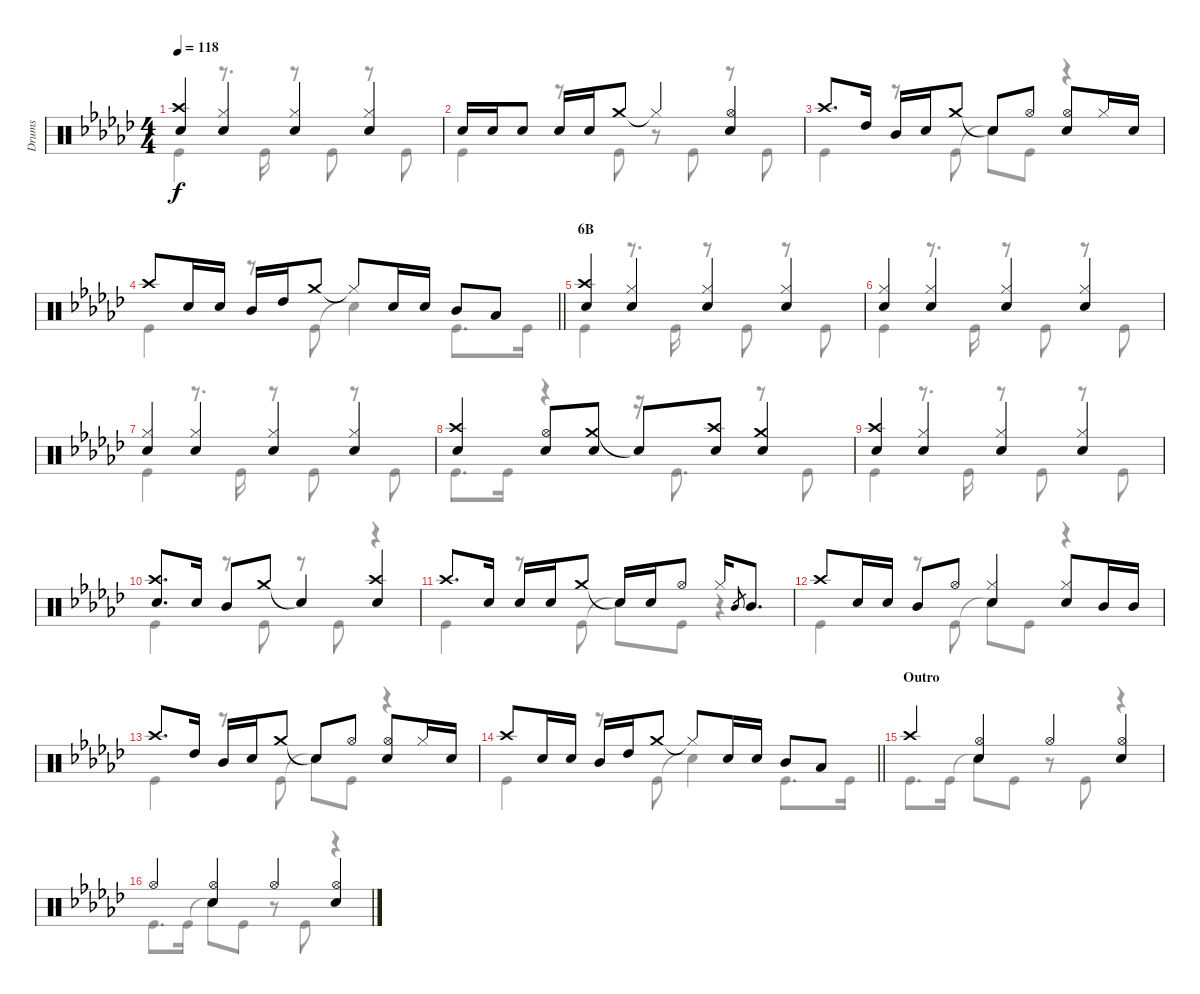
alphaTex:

\track ("Drums" "Drums") {instrument percussion}
\staff {score}
\articulation defaults
\voice
\ts (4 4)
\tempo 118
\clef neutral
\ks gb
("Crash high (hit)" "Snare (hit) 2").4{dy f} ("Hi-Hat (closed)" "Snare (hit) 2").4 ("Hi-Hat (closed)" "Snare (hit) 2").4 ("Hi-Hat (closed)" "Snare (hit) 2").4 |
"Snare (hit) 2".16 "Snare (hit) 2".16 "Snare (hit) 2".8 "Snare (hit) 2".16 "Snare (hit) 2".16 "Crash medium (hit)".8 "Hi-Hat (closed)"{t}.4 ("Hi-Hat (open)" "Snare (hit) 2").4 |
"Crash high (hit)".8{d} "High Tom (hit)".16 "Mid Tom (hit)".16 "Snare (hit) 2".16 "Crash medium (hit)".8 "Snare (hit)"{t}.8 "Hi-Hat (open)".8 ("Hi-Hat (open)" "Snare (hit) 2").8 "Hi-Hat (closed)".16 "Snare (hit) 2".16 |
\barLineRight lightlight "Crash high (hit)".8 "Snare (hit) 2".16 "Snare (hit) 2".16 "Mid Tom (hit)".16 "High Tom (hit)".16 "Crash medium (hit)".8 "Hi-Hat (closed)"{t}.8 "Snare (hit) 2".16 "Snare (hit) 2".16 "Mid Tom (hit)".8 "Low Tom (hit)".8
|
\section ("" "6B")
("Crash high (hit)" "Snare (hit) 2").4 ("Hi-Hat (closed)" "Snare (hit) 2").4 ("Hi-Hat (closed)" "Snare (hit) 2").4 ("Hi-Hat (closed)" "Snare (hit) 2").4 |
("Hi-Hat (closed)" "Snare (hit) 2").4 ("Hi-Hat (closed)" "Snare (hit) 2").4 ("Hi-Hat (closed)" "Snare (hit) 2").4 ("Hi-Hat (closed)" "Snare (hit) 2").4 |
("Hi-Hat (closed)" "Snare (hit) 2").4 ("Hi-Hat (closed)" "Snare (hit) 2").4 ("Hi-Hat (closed)" "Snare (hit) 2").4 ("Hi-Hat (closed)" "Snare (hit) 2").4 |
("Crash high (hit)" "Snare (hit) 2").4 ("Hi-Hat (open)" "Snare (hit) 2").8 ("Crash medium (hit)" "Snare (hit) 2").8 "Snare (hit)"{t}.8 ("Crash high (hit)" "Snare (hit) 2").8 ("Crash medium (hit)" "Snare (hit) 2").4 |
("Crash high (hit)" "Snare (hit) 2").4 ("Hi-Hat (closed)" "Snare (hit) 2").4 ("Hi-Hat (closed)" "Snare (hit) 2").4 ("Hi-Hat (closed)" "Snare (hit) 2").4 |
("Crash high (hit)" "Snare (hit) 2").8{d} "Snare (hit) 2".16 "Mid Tom (hit)".8 "Crash medium (hit)".8 "Snare (hit)"{t}.4 ("Crash high (hit)" "Snare (hit) 2").4 |
"Crash high (hit)".8{d} "Snare (hit) 2".16 "Snare (hit) 2".16 "Snare (hit) 2".16 "Crash medium (hit)".8 "Snare (hit)"{t}.16 "Snare (hit) 2".16 "Hi-Hat (open)".8 "Hi-Hat (closed)".16 "Mid Tom (hit)".8{gr} "Mid Tom (hit)".8{d} |
"Crash high (hit)".8 "Snare (hit) 2".16 "Snare (hit) 2".16 "Mid Tom (hit)".8 "Hi-Hat (open)".8 ("Hi-Hat (closed)" "Snare (hit) 2").4 ("Hi-Hat (closed)" "Snare (hit) 2").8 "Mid Tom (hit)".16 "Mid Tom (hit)".16 |
"Crash high (hit)".8{d} "High Tom (hit)".16 "Mid Tom (hit)".16 "Snare (hit) 2".16 "Crash medium (hit)".8 "Snare (hit)"{t}.8 "Hi-Hat (open)".8 ("Hi-Hat (open)" "Snare (hit) 2").8 "Hi-Hat (closed)".16 "Snare (hit) 2".16 |
\barLineRight lightlight "Crash high (hit)".8 "Snare (hit) 2".16 "Snare (hit) 2".16 "Mid Tom (hit)".16 "High Tom (hit)".16 "Crash medium (hit)".8 "Hi-Hat (closed)"{t}.8 "Snare (hit) 2".16 "Snare (hit) 2".16 "Mid Tom (hit)".8 "Low Tom (hit)".8
|
\section ("" "Outro")
"Crash high (hit)".4 ("Hi-Hat (open)" "Snare (hit) 2").4 "Hi-Hat (open)".4 ("Hi-Hat (open)" "Snare (hit) 2").4 |
"Hi-Hat (open)".4 ("Hi-Hat (open)" "Snare (hit) 2").4 "Hi-Hat (open)".4 ("Hi-Hat (open)" "Snare (hit) 2").4
\voice
\clef neutral
\ottava regular
\simile none
\ks gb "Kick (hit)".4{dy f}
r.8{d} "Kick (hit)".16 r.8 "Kick (hit)".8 r.8 "Kick (hit)".8 |
"Kick (hit)".4 r.8 "Kick (hit)".8 r.8 "Kick (hit)".8 r.8 "Kick (hit)".8 |
"Kick (hit)".4 r.8 "Kick (hit)".8 "Snare (hit)"{t}.8 "Kick (hit)".8 r.4 |
\barLineRight lightlight "Kick (hit)".4
r.8 "Kick (hit)".8 "Snare (hit)"{t}.4 "Kick (hit)".8{d} "Kick (hit)".16 |
"Kick (hit)".4 r.8{d} "Kick (hit)".16 r.8 "Kick (hit)".8 r.8 "Kick (hit)".8 |
"Kick (hit)".4 r.8{d} "Kick (hit)".16 r.8 "Kick (hit)".8 r.8 "Kick (hit)".8 |
"Kick (hit)".4 r.8{d} "Kick (hit)".16 r.8 "Kick (hit)".8 r.8 "Kick (hit)".8 |
"Kick (hit)".8{d} "Kick (hit)".16 r.4 r.16 "Kick (hit)".8{d} r.8 "Kick (hit)".8 |
"Kick (hit)".4 r.8{d} "Kick (hit)".16 r.8 "Kick (hit)".8 r.8 "Kick (hit)".8 |
"Kick (hit)".4 r.8 "Kick (hit)".8 r.8 "Kick (hit)".8 r.4 |
"Kick (hit)".4 r.8 "Kick (hit)".8 "Snare (hit)"{t}.8 "Kick (hit)".8 r.4 |
"Kick (hit)".4 r.8 "Kick (hit)".8 "Snare (hit)"{t}.8 "Kick (hit)".8 r.4 |
"Kick (hit)".4 r.8 "Kick (hit)".8 "Snare (hit)"{t}.8 "Kick (hit)".8 r.4 |
\barLineRight lightlight "Kick (hit)".4
r.8 "Kick (hit)".8 "Snare (hit)"{t}.4 "Kick (hit)".8{d} "Kick (hit)".16 |
"Kick (hit)".8{d} "Kick (hit)".16 "Snare (hit)"{t}.8 "Kick (hit)".8 r.8 "Kick (hit)".8 r.4 |
"Kick (hit)".8{d} "Kick (hit)".16 "Snare (hit)"{t}.8 "Kick (hit)".8 r.8 "Kick (hit)".8 r.4
